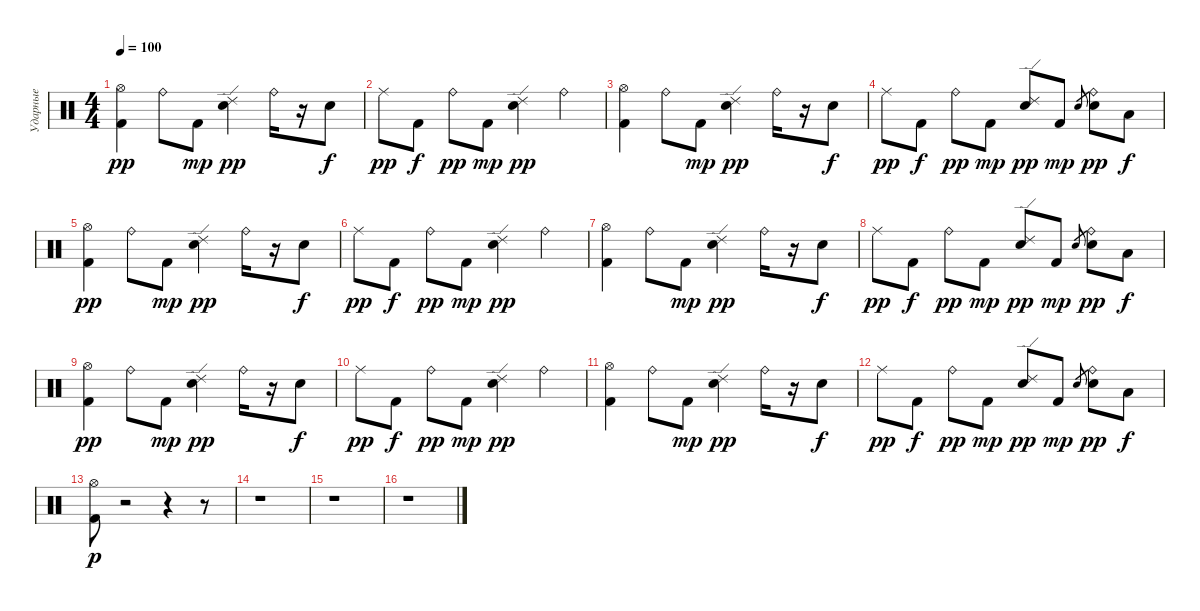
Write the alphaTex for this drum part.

\track ("Ударные" "Ударные") {instrument percussion}
\staff {score}
\articulation defaults
\ts (4 4)
\tempo 100
\clef neutral
\ks c
("Hi-Hat (open)" "Kick (hit) 2").4{dy pp} "Ride (bell)".8 "Kick (hit) 2".8{dy mp} ("Ride (edge) 2" "Electric Snare (hit)").4{dy pp} "Ride (bell)".16 r.16 "Electric Snare (hit)".8{dy f} |
"Ride (middle)".8{dy pp} "Kick (hit) 2".8{dy f} "Ride (bell)".8{dy pp} "Kick (hit) 2".8{dy mp} ("Ride (edge) 2" "Electric Snare (hit)").4{dy pp} "Ride (bell)".4 |
("Hi-Hat (open)" "Kick (hit) 2").4 "Ride (bell)".8 "Kick (hit) 2".8{dy mp} ("Ride (edge) 2" "Electric Snare (hit)").4{dy pp} "Ride (bell)".16 r.16 "Electric Snare (hit)".8{dy f} |
"Ride (middle)".8{dy pp} "Kick (hit) 2".8{dy f} "Ride (bell)".8{dy pp} "Kick (hit) 2".8{dy mp} ("Ride (edge) 2" "Electric Snare (hit)").8{dy pp} "Kick (hit) 2".8{dy mp} "Electric Snare (hit)".8{gr} ("Ride (bell)" "Electric Snare (hit)").8{dy pp} "Low Floor Tom (hit)".8{dy f} |
("Hi-Hat (open)" "Kick (hit) 2").4{dy pp} "Ride (bell)".8 "Kick (hit) 2".8{dy mp} ("Ride (edge) 2" "Electric Snare (hit)").4{dy pp} "Ride (bell)".16 r.16 "Electric Snare (hit)".8{dy f} |
"Ride (middle)".8{dy pp} "Kick (hit) 2".8{dy f} "Ride (bell)".8{dy pp} "Kick (hit) 2".8{dy mp} ("Ride (edge) 2" "Electric Snare (hit)").4{dy pp} "Ride (bell)".4 |
("Hi-Hat (open)" "Kick (hit) 2").4 "Ride (bell)".8 "Kick (hit) 2".8{dy mp} ("Ride (edge) 2" "Electric Snare (hit)").4{dy pp} "Ride (bell)".16 r.16 "Electric Snare (hit)".8{dy f} |
"Ride (middle)".8{dy pp} "Kick (hit) 2".8{dy f} "Ride (bell)".8{dy pp} "Kick (hit) 2".8{dy mp} ("Ride (edge) 2" "Electric Snare (hit)").8{dy pp} "Kick (hit) 2".8{dy mp} "Electric Snare (hit)".8{gr} ("Ride (bell)" "Electric Snare (hit)").8{dy pp} "Low Floor Tom (hit)".8{dy f} |
("Hi-Hat (open)" "Kick (hit) 2").4{dy pp} "Ride (bell)".8 "Kick (hit) 2".8{dy mp} ("Ride (edge) 2" "Electric Snare (hit)").4{dy pp} "Ride (bell)".16 r.16 "Electric Snare (hit)".8{dy f} |
"Ride (middle)".8{dy pp} "Kick (hit) 2".8{dy f} "Ride (bell)".8{dy pp} "Kick (hit) 2".8{dy mp} ("Ride (edge) 2" "Electric Snare (hit)").4{dy pp} "Ride (bell)".4 |
("Hi-Hat (open)" "Kick (hit) 2").4 "Ride (bell)".8 "Kick (hit) 2".8{dy mp} ("Ride (edge) 2" "Electric Snare (hit)").4{dy pp} "Ride (bell)".16 r.16 "Electric Snare (hit)".8{dy f} |
"Ride (middle)".8{dy pp} "Kick (hit) 2".8{dy f} "Ride (bell)".8{dy pp} "Kick (hit) 2".8{dy mp} ("Ride (edge) 2" "Electric Snare (hit)").8{dy pp} "Kick (hit) 2".8{dy mp} "Electric Snare (hit)".8{gr} ("Ride (bell)" "Electric Snare (hit)").8{dy pp} "Low Floor Tom (hit)".8{dy f} |
("Hi-Hat (open)" "Kick (hit) 2").8{dy p} r.2 r.4 r.8 |
r.1 |
r.1 |
r.1
